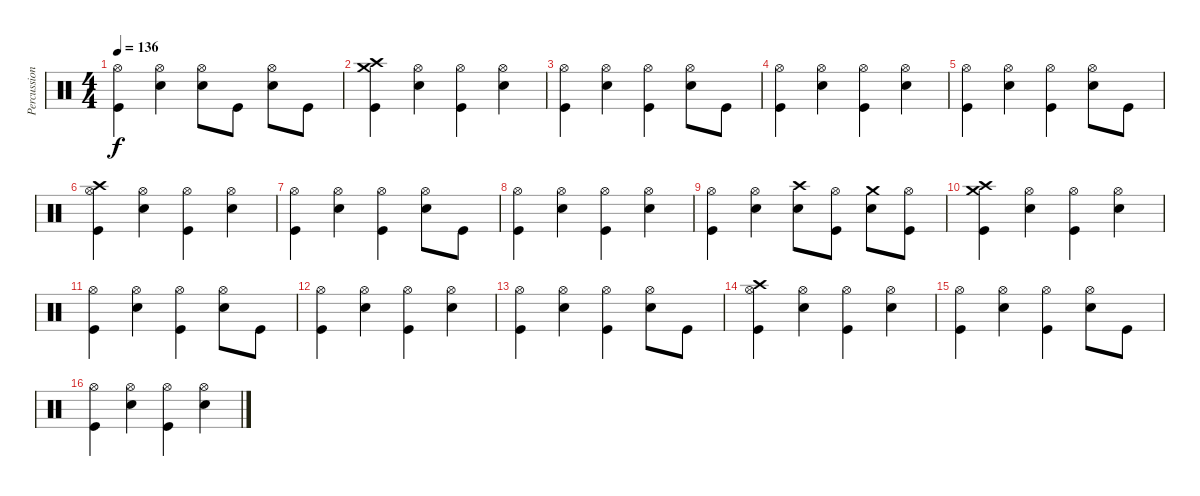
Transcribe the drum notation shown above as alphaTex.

\track ("Percussion" "Percussion") {instrument percussion}
\staff {score}
\articulation defaults
\ts (4 4)
\tempo 136
\clef neutral
\ks c
("Hi-Hat (open)" "Kick (hit)").4{dy f} ("Hi-Hat (open)" "Electric Snare (hit)").4 ("Hi-Hat (open)" "Electric Snare (hit)").8 "Kick (hit)".8 ("Hi-Hat (open)" "Electric Snare (hit)").8 "Kick (hit)".8 |
("Crash high (hit)" "Crash medium (hit)" "Kick (hit)").4 ("Hi-Hat (open)" "Electric Snare (hit)").4 ("Hi-Hat (open)" "Kick (hit)").4 ("Hi-Hat (open)" "Electric Snare (hit)").4 |
("Hi-Hat (open)" "Kick (hit)").4 ("Hi-Hat (open)" "Electric Snare (hit)").4 ("Hi-Hat (open)" "Kick (hit)").4 ("Hi-Hat (open)" "Electric Snare (hit)").8 "Kick (hit)".8 |
("Hi-Hat (open)" "Kick (hit)").4 ("Hi-Hat (open)" "Electric Snare (hit)").4 ("Hi-Hat (open)" "Kick (hit)").4 ("Hi-Hat (open)" "Electric Snare (hit)").4 |
("Hi-Hat (open)" "Kick (hit)").4 ("Hi-Hat (open)" "Electric Snare (hit)").4 ("Hi-Hat (open)" "Kick (hit)").4 ("Hi-Hat (open)" "Electric Snare (hit)").8 "Kick (hit)".8 |
("Crash high (hit)" "Hi-Hat (open)" "Kick (hit)").4 ("Hi-Hat (open)" "Electric Snare (hit)").4 ("Hi-Hat (open)" "Kick (hit)").4 ("Hi-Hat (open)" "Electric Snare (hit)").4 |
("Hi-Hat (open)" "Kick (hit)").4 ("Hi-Hat (open)" "Electric Snare (hit)").4 ("Hi-Hat (open)" "Kick (hit)").4 ("Hi-Hat (open)" "Electric Snare (hit)").8 "Kick (hit)".8 |
("Hi-Hat (open)" "Kick (hit)").4 ("Hi-Hat (open)" "Electric Snare (hit)").4 ("Hi-Hat (open)" "Kick (hit)").4 ("Hi-Hat (open)" "Electric Snare (hit)").4 |
("Hi-Hat (open)" "Kick (hit)").4 ("Hi-Hat (open)" "Electric Snare (hit)").4 ("Crash high (hit)" "Electric Snare (hit)").8 ("Hi-Hat (open)" "Kick (hit)").8 ("Crash medium (hit)" "Electric Snare (hit)").8 ("Hi-Hat (open)" "Kick (hit)").8 |
("Crash high (hit)" "Crash medium (hit)" "Kick (hit)").4 ("Hi-Hat (open)" "Electric Snare (hit)").4 ("Hi-Hat (open)" "Kick (hit)").4 ("Hi-Hat (open)" "Electric Snare (hit)").4 |
("Hi-Hat (open)" "Kick (hit)").4 ("Hi-Hat (open)" "Electric Snare (hit)").4 ("Hi-Hat (open)" "Kick (hit)").4 ("Hi-Hat (open)" "Electric Snare (hit)").8 "Kick (hit)".8 |
("Hi-Hat (open)" "Kick (hit)").4 ("Hi-Hat (open)" "Electric Snare (hit)").4 ("Hi-Hat (open)" "Kick (hit)").4 ("Hi-Hat (open)" "Electric Snare (hit)").4 |
("Hi-Hat (open)" "Kick (hit)").4 ("Hi-Hat (open)" "Electric Snare (hit)").4 ("Hi-Hat (open)" "Kick (hit)").4 ("Hi-Hat (open)" "Electric Snare (hit)").8 "Kick (hit)".8 |
("Crash high (hit)" "Hi-Hat (open)" "Kick (hit)").4 ("Hi-Hat (open)" "Electric Snare (hit)").4 ("Hi-Hat (open)" "Kick (hit)").4 ("Hi-Hat (open)" "Electric Snare (hit)").4 |
("Hi-Hat (open)" "Kick (hit)").4 ("Hi-Hat (open)" "Electric Snare (hit)").4 ("Hi-Hat (open)" "Kick (hit)").4 ("Hi-Hat (open)" "Electric Snare (hit)").8 "Kick (hit)".8 |
("Hi-Hat (open)" "Kick (hit)").4 ("Hi-Hat (open)" "Electric Snare (hit)").4 ("Hi-Hat (open)" "Kick (hit)").4 ("Hi-Hat (open)" "Electric Snare (hit)").4
